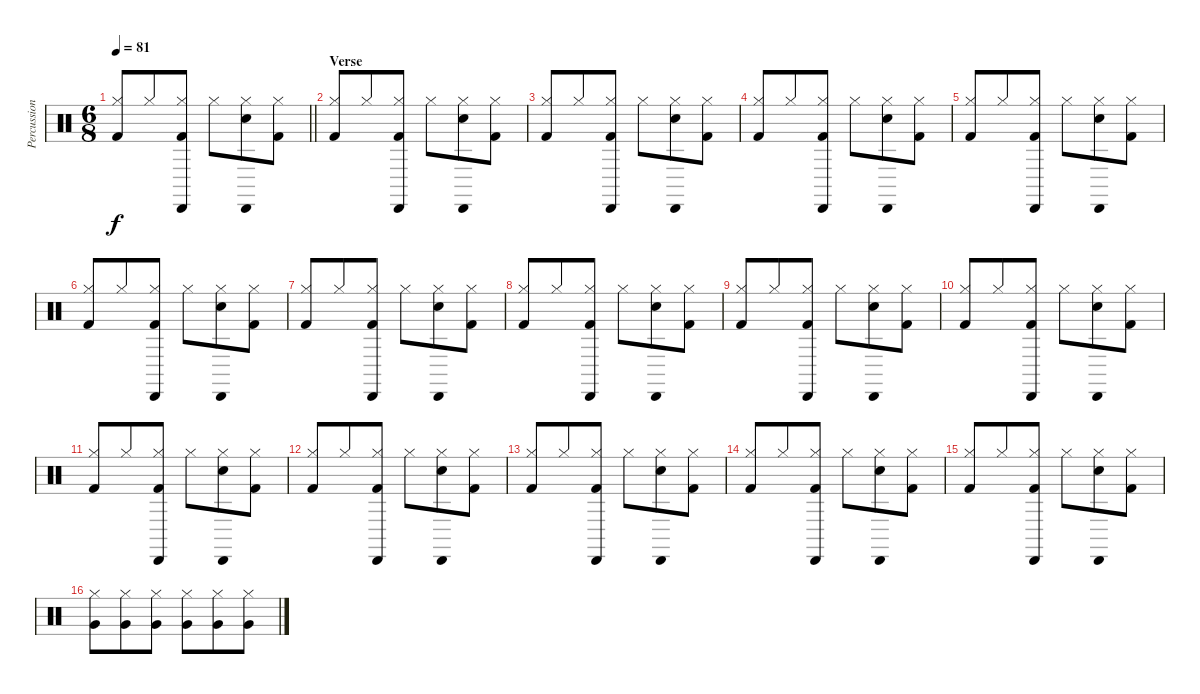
\track ("Percussion" "Percussion") {instrument percussion}
\staff {score}
\articulation defaults
\ts (6 8)
\tempo 81
\clef neutral
\barLineRight lightlight
\ks c
("Hi-Hat (closed)" "Kick (hit) 2").8{dy f} "Hi-Hat (closed)".8 ("Hi-Hat (closed)" "Kick (hit) 2" "Cabasa (hit)").8 "Hi-Hat (closed)".8 ("Hi-Hat (closed)" "Snare (hit) 2" "Cabasa (hit)").8 ("Hi-Hat (closed)" "Kick (hit) 2").8 |
\section ("" "Verse")
("Hi-Hat (closed)" "Kick (hit) 2").8 "Hi-Hat (closed)".8 ("Hi-Hat (closed)" "Kick (hit) 2" "Cabasa (hit)").8 "Hi-Hat (closed)".8 ("Hi-Hat (closed)" "Snare (hit) 2" "Cabasa (hit)").8 ("Hi-Hat (closed)" "Kick (hit) 2").8 |
("Hi-Hat (closed)" "Kick (hit) 2").8 "Hi-Hat (closed)".8 ("Hi-Hat (closed)" "Kick (hit) 2" "Cabasa (hit)").8 "Hi-Hat (closed)".8 ("Hi-Hat (closed)" "Snare (hit) 2" "Cabasa (hit)").8 ("Hi-Hat (closed)" "Kick (hit) 2").8 |
("Hi-Hat (closed)" "Kick (hit) 2").8 "Hi-Hat (closed)".8 ("Hi-Hat (closed)" "Kick (hit) 2" "Cabasa (hit)").8 "Hi-Hat (closed)".8 ("Hi-Hat (closed)" "Snare (hit) 2" "Cabasa (hit)").8 ("Hi-Hat (closed)" "Kick (hit) 2").8 |
("Hi-Hat (closed)" "Kick (hit) 2").8 "Hi-Hat (closed)".8 ("Hi-Hat (closed)" "Kick (hit) 2" "Cabasa (hit)").8 "Hi-Hat (closed)".8 ("Hi-Hat (closed)" "Snare (hit) 2" "Cabasa (hit)").8 ("Hi-Hat (closed)" "Kick (hit) 2").8 |
("Hi-Hat (closed)" "Kick (hit) 2").8 "Hi-Hat (closed)".8 ("Hi-Hat (closed)" "Kick (hit) 2" "Cabasa (hit)").8 "Hi-Hat (closed)".8 ("Hi-Hat (closed)" "Snare (hit) 2" "Cabasa (hit)").8 ("Hi-Hat (closed)" "Kick (hit) 2").8 |
("Hi-Hat (closed)" "Kick (hit) 2").8 "Hi-Hat (closed)".8 ("Hi-Hat (closed)" "Kick (hit) 2" "Cabasa (hit)").8 "Hi-Hat (closed)".8 ("Hi-Hat (closed)" "Snare (hit) 2" "Cabasa (hit)").8 ("Hi-Hat (closed)" "Kick (hit) 2").8 |
("Hi-Hat (closed)" "Kick (hit) 2").8 "Hi-Hat (closed)".8 ("Hi-Hat (closed)" "Kick (hit) 2" "Cabasa (hit)").8 "Hi-Hat (closed)".8 ("Hi-Hat (closed)" "Snare (hit) 2" "Cabasa (hit)").8 ("Hi-Hat (closed)" "Kick (hit) 2").8 |
("Hi-Hat (closed)" "Kick (hit) 2").8 "Hi-Hat (closed)".8 ("Hi-Hat (closed)" "Kick (hit) 2" "Cabasa (hit)").8 "Hi-Hat (closed)".8 ("Hi-Hat (closed)" "Snare (hit) 2" "Cabasa (hit)").8 ("Hi-Hat (closed)" "Kick (hit) 2").8 |
("Hi-Hat (closed)" "Kick (hit) 2").8 "Hi-Hat (closed)".8 ("Hi-Hat (closed)" "Kick (hit) 2" "Cabasa (hit)").8 "Hi-Hat (closed)".8 ("Hi-Hat (closed)" "Snare (hit) 2" "Cabasa (hit)").8 ("Hi-Hat (closed)" "Kick (hit) 2").8 |
("Hi-Hat (closed)" "Kick (hit) 2").8 "Hi-Hat (closed)".8 ("Hi-Hat (closed)" "Kick (hit) 2" "Cabasa (hit)").8 "Hi-Hat (closed)".8 ("Hi-Hat (closed)" "Snare (hit) 2" "Cabasa (hit)").8 ("Hi-Hat (closed)" "Kick (hit) 2").8 |
("Hi-Hat (closed)" "Kick (hit) 2").8 "Hi-Hat (closed)".8 ("Hi-Hat (closed)" "Kick (hit) 2" "Cabasa (hit)").8 "Hi-Hat (closed)".8 ("Hi-Hat (closed)" "Snare (hit) 2" "Cabasa (hit)").8 ("Hi-Hat (closed)" "Kick (hit) 2").8 |
("Hi-Hat (closed)" "Kick (hit) 2").8 "Hi-Hat (closed)".8 ("Hi-Hat (closed)" "Kick (hit) 2" "Cabasa (hit)").8 "Hi-Hat (closed)".8 ("Hi-Hat (closed)" "Snare (hit) 2" "Cabasa (hit)").8 ("Hi-Hat (closed)" "Kick (hit) 2").8 |
("Hi-Hat (closed)" "Kick (hit) 2").8 "Hi-Hat (closed)".8 ("Hi-Hat (closed)" "Kick (hit) 2" "Cabasa (hit)").8 "Hi-Hat (closed)".8 ("Hi-Hat (closed)" "Snare (hit) 2" "Cabasa (hit)").8 ("Hi-Hat (closed)" "Kick (hit) 2").8 |
("Hi-Hat (closed)" "Kick (hit) 2").8 "Hi-Hat (closed)".8 ("Hi-Hat (closed)" "Kick (hit) 2" "Cabasa (hit)").8 "Hi-Hat (closed)".8 ("Hi-Hat (closed)" "Snare (hit) 2" "Cabasa (hit)").8 ("Hi-Hat (closed)" "Kick (hit) 2").8 |
("Hi-Hat (closed)" "Very Low Tom (hit)").8 ("Hi-Hat (closed)" "Very Low Tom (hit)").8 ("Hi-Hat (closed)" "Very Low Tom (hit)").8 ("Hi-Hat (closed)" "Very Low Tom (hit)").8 ("Hi-Hat (closed)" "Very Low Tom (hit)").8 ("Hi-Hat (closed)" "Very Low Tom (hit)").8
